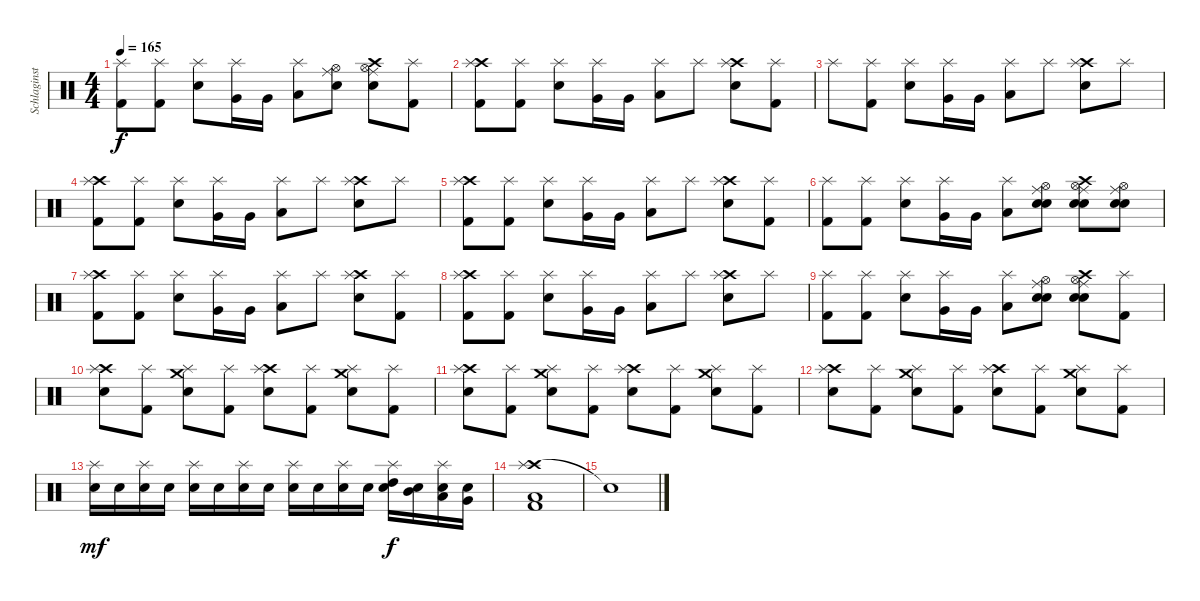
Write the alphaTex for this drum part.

\track ("Schlaginstrumente - Auswahl" "Schlaginst") {instrument percussion}
\staff {score}
\articulation defaults
\ts (4 4)
\tempo 165
\clef neutral
\ks c
("Splash (hit)" "Kick (hit) 2").8{dy f} ("Splash (hit)" "Kick (hit) 2").8 ("Splash (hit)" "Electric Snare (hit)").8 ("Very Low Tom (hit)" "Splash (hit)").16 "Very Low Tom (hit)".16 ("Low Floor Tom (hit)" "Splash (hit)").8 ("Ride (middle)" "Hi-Hat (open)" "Electric Snare (hit)").8 ("Crash high (hit)" "Ride (middle)" "Hi-Hat (open)" "Electric Snare (hit)").8 ("Splash (hit)" "Kick (hit) 2").8 |
("Crash high (hit)" "Splash (hit)" "Kick (hit) 2").8 ("Splash (hit)" "Kick (hit) 2").8 ("Splash (hit)" "Electric Snare (hit)").8 ("Very Low Tom (hit)" "Splash (hit)").16 "Very Low Tom (hit)".16 ("Low Floor Tom (hit)" "Splash (hit)").8 "Splash (hit)".8 ("Crash high (hit)" "Splash (hit)" "Electric Snare (hit)").8 ("Splash (hit)" "Kick (hit) 2").8 |
"Splash (hit)".8 ("Splash (hit)" "Kick (hit) 2").8 ("Splash (hit)" "Electric Snare (hit)").8 ("Very Low Tom (hit)" "Splash (hit)").16 "Very Low Tom (hit)".16 ("Low Floor Tom (hit)" "Splash (hit)").8 "Splash (hit)".8 ("Crash high (hit)" "Splash (hit)" "Electric Snare (hit)").8 "Splash (hit)".8 |
("Crash high (hit)" "Splash (hit)" "Kick (hit) 2").8 ("Splash (hit)" "Kick (hit) 2").8 ("Splash (hit)" "Electric Snare (hit)").8 ("Very Low Tom (hit)" "Splash (hit)").16 "Very Low Tom (hit)".16 ("Low Floor Tom (hit)" "Splash (hit)").8 "Splash (hit)".8 ("Crash high (hit)" "Splash (hit)" "Electric Snare (hit)").8 "Splash (hit)".8 |
("Crash high (hit)" "Splash (hit)" "Kick (hit) 2").8 ("Splash (hit)" "Kick (hit) 2").8 ("Splash (hit)" "Electric Snare (hit)").8 ("Very Low Tom (hit)" "Splash (hit)").16 "Very Low Tom (hit)".16 ("Low Floor Tom (hit)" "Splash (hit)").8 "Splash (hit)".8 ("Crash high (hit)" "Splash (hit)" "Electric Snare (hit)").8 ("Splash (hit)" "Kick (hit) 2").8 |
("Splash (hit)" "Kick (hit) 2").8 ("Splash (hit)" "Kick (hit) 2").8 ("Splash (hit)" "Electric Snare (hit)").8 ("Very Low Tom (hit)" "Splash (hit)").16 "Very Low Tom (hit)".16 ("Low Floor Tom (hit)" "Splash (hit)").8 ("Ride (middle)" "Hand Clap (hit)" "Hi-Hat (open)" "Electric Snare (hit)").8 ("Crash high (hit)" "Ride (middle)" "Hand Clap (hit)" "Hi-Hat (open)" "Electric Snare (hit)").8 ("Ride (middle)" "Hand Clap (hit)" "Hi-Hat (open)" "Electric Snare (hit)").8 |
("Crash high (hit)" "Splash (hit)" "Kick (hit) 2").8 ("Splash (hit)" "Kick (hit) 2").8 ("Splash (hit)" "Electric Snare (hit)").8 ("Very Low Tom (hit)" "Splash (hit)").16 "Very Low Tom (hit)".16 ("Low Floor Tom (hit)" "Splash (hit)").8 "Splash (hit)".8 ("Crash high (hit)" "Splash (hit)" "Electric Snare (hit)").8 ("Splash (hit)" "Kick (hit) 2").8 |
("Crash high (hit)" "Splash (hit)" "Kick (hit) 2").8 ("Splash (hit)" "Kick (hit) 2").8 ("Splash (hit)" "Electric Snare (hit)").8 ("Very Low Tom (hit)" "Splash (hit)").16 "Very Low Tom (hit)".16 ("Low Floor Tom (hit)" "Splash (hit)").8 "Splash (hit)".8 ("Crash high (hit)" "Splash (hit)" "Electric Snare (hit)").8 "Splash (hit)".8 |
("Splash (hit)" "Kick (hit) 2").8 ("Splash (hit)" "Kick (hit) 2").8 ("Splash (hit)" "Electric Snare (hit)").8 ("Very Low Tom (hit)" "Splash (hit)").16 "Very Low Tom (hit)".16 ("Low Floor Tom (hit)" "Splash (hit)").8 ("Ride (middle)" "Hand Clap (hit)" "Hi-Hat (open)" "Electric Snare (hit)").8 ("Crash high (hit)" "Ride (middle)" "Hand Clap (hit)" "Hi-Hat (open)" "Electric Snare (hit)").8 ("Splash (hit)" "Kick (hit) 2").8 |
("Crash high (hit)" "Splash (hit)" "Electric Snare (hit)").8 ("Splash (hit)" "Kick (hit) 2").8 ("Crash medium (hit)" "Splash (hit)" "Electric Snare (hit)").8 ("Splash (hit)" "Kick (hit) 2").8 ("Crash high (hit)" "Splash (hit)" "Electric Snare (hit)").8 ("Splash (hit)" "Kick (hit) 2").8 ("Crash medium (hit)" "Splash (hit)" "Electric Snare (hit)").8 ("Splash (hit)" "Kick (hit) 2").8 |
("Crash high (hit)" "Splash (hit)" "Electric Snare (hit)").8 ("Splash (hit)" "Kick (hit) 2").8 ("Crash medium (hit)" "Splash (hit)" "Electric Snare (hit)").8 ("Splash (hit)" "Kick (hit) 2").8 ("Crash high (hit)" "Splash (hit)" "Electric Snare (hit)").8 ("Splash (hit)" "Kick (hit) 2").8 ("Crash medium (hit)" "Splash (hit)" "Electric Snare (hit)").8 ("Splash (hit)" "Kick (hit) 2").8 |
("Crash high (hit)" "Splash (hit)" "Electric Snare (hit)").8 ("Splash (hit)" "Kick (hit) 2").8 ("Crash medium (hit)" "Splash (hit)" "Electric Snare (hit)").8 ("Splash (hit)" "Kick (hit) 2").8 ("Crash high (hit)" "Splash (hit)" "Electric Snare (hit)").8 ("Splash (hit)" "Kick (hit) 2").8 ("Crash medium (hit)" "Splash (hit)" "Electric Snare (hit)").8 ("Splash (hit)" "Kick (hit) 2").8 |
("Splash (hit)" "Electric Snare (hit)").16{dy mf} "Electric Snare (hit)".16 ("Splash (hit)" "Electric Snare (hit)").16 "Electric Snare (hit)".16 ("Splash (hit)" "Electric Snare (hit)").16 "Electric Snare (hit)".16 ("Splash (hit)" "Electric Snare (hit)").16 "Electric Snare (hit)".16 ("Splash (hit)" "Electric Snare (hit)").16 "Electric Snare (hit)".16 ("Splash (hit)" "Electric Snare (hit)").16 "Electric Snare (hit)".16 ("Splash (hit)" "High Tom (hit)" "Electric Snare (hit)").16{dy f} ("Mid Tom (hit)" "Electric Snare (hit)").16 ("Splash (hit)" "Low Tom (hit)" "Electric Snare (hit)").16 ("Very Low Tom (hit)" "Electric Snare (hit)").16 |
("Crash high (hit)" "Splash (hit)" "Low Floor Tom (hit)" "Kick (hit) 2").1 |
"Snare (hit)"{t}.1
